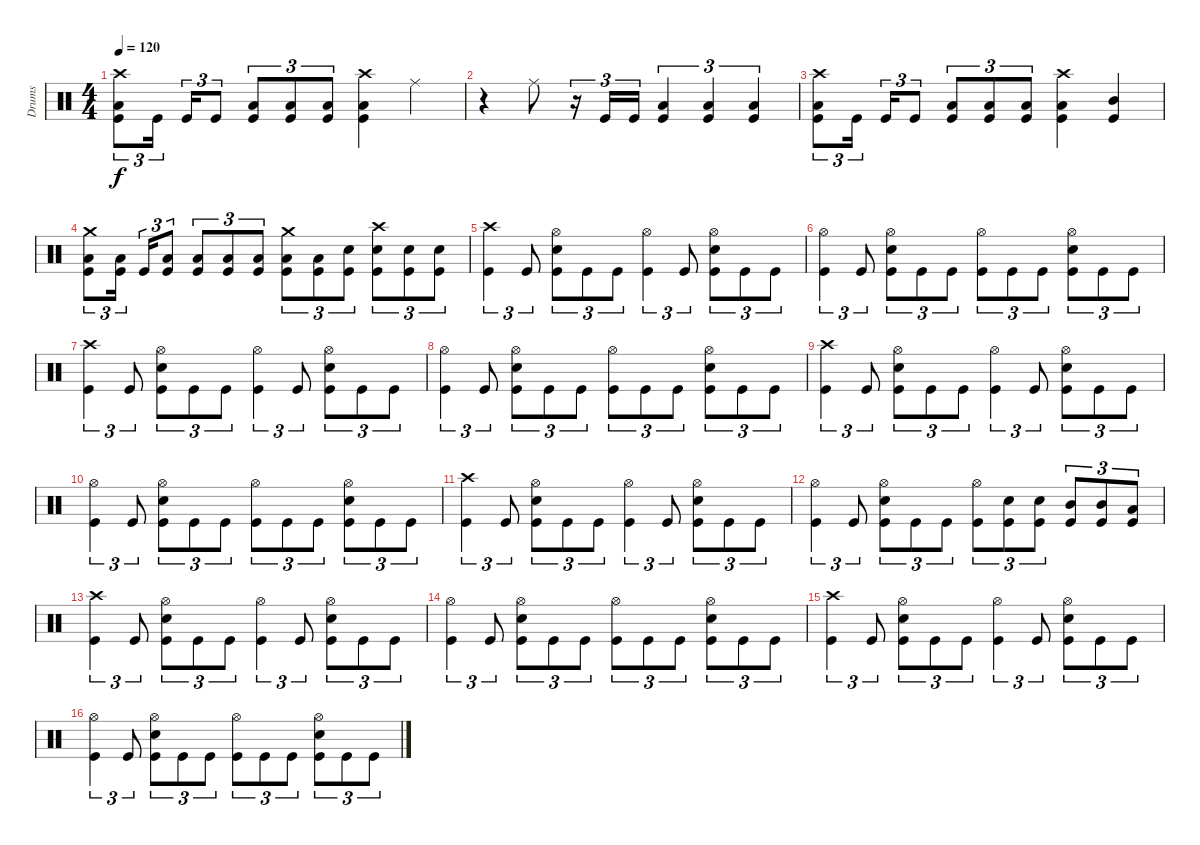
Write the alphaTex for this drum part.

\track ("Drums" "Drums") {instrument percussion}
\staff {score}
\articulation defaults
\ts (4 4)
\tempo 120
\clef neutral
\ks c
("Crash high (hit)" "Low Floor Tom (hit)" "Kick (hit)").8{tu (3 2) dy f} "Kick (hit)".16{tu (3 2)} "Kick (hit)".16{tu (3 2)} "Kick (hit)".8{tu (3 2)} ("Low Floor Tom (hit)" "Kick (hit)").8{tu (3 2)} ("Low Floor Tom (hit)" "Kick (hit)").8{tu (3 2)} ("Low Floor Tom (hit)" "Kick (hit)").8{tu (3 2)} ("Crash high (hit)" "Low Floor Tom (hit)" "Kick (hit)").4 "Ride (middle)".4 |
r.4 "Ride (middle)".8 r.16{tu (3 2)} "Kick (hit)".16{tu (3 2)} "Kick (hit)".16{tu (3 2)} ("Low Floor Tom (hit)" "Kick (hit)").4{tu (3 2)} ("Low Floor Tom (hit)" "Kick (hit)").4{tu (3 2)} ("Low Floor Tom (hit)" "Kick (hit)").4{tu (3 2)} |
("Crash high (hit)" "Low Floor Tom (hit)" "Kick (hit)").8{tu (3 2)} "Kick (hit)".16{tu (3 2)} "Kick (hit)".16{tu (3 2)} "Kick (hit)".8{tu (3 2)} ("Low Floor Tom (hit)" "Kick (hit)").8{tu (3 2)} ("Low Floor Tom (hit)" "Kick (hit)").8{tu (3 2)} ("Low Floor Tom (hit)" "Kick (hit)").8{tu (3 2)} ("Crash high (hit)" "Low Floor Tom (hit)" "Kick (hit)").4 ("Mid Tom (hit)" "Kick (hit)").4 |
("Crash medium (hit)" "Low Floor Tom (hit)" "Kick (hit)").8{tu (3 2)} ("Low Floor Tom (hit)" "Kick (hit)").16{tu (3 2)} "Kick (hit)".16{tu (3 2)} ("Low Floor Tom (hit)" "Kick (hit)").8{tu (3 2)} ("Low Floor Tom (hit)" "Kick (hit)").8{tu (3 2)} ("Low Floor Tom (hit)" "Kick (hit)").8{tu (3 2)} ("Low Floor Tom (hit)" "Kick (hit)").8{tu (3 2)} ("Crash medium (hit)" "Low Floor Tom (hit)" "Kick (hit)").8{tu (3 2)} ("Low Floor Tom (hit)" "Kick (hit)").8{tu (3 2)} ("Snare (hit) 2" "Kick (hit)").8{tu (3 2)} ("Crash high (hit)" "Snare (hit) 2" "Kick (hit)").8{tu (3 2)} ("Snare (hit) 2" "Kick (hit)").8{tu (3 2)} ("Snare (hit) 2" "Kick (hit)").8{tu (3 2)} |
("Crash high (hit)" "Kick (hit)").4{tu (3 2)} "Kick (hit)".8{tu (3 2)} ("Hi-Hat (open)" "Snare (hit) 2" "Kick (hit)").8{tu (3 2)} "Kick (hit)".8{tu (3 2)} "Kick (hit)".8{tu (3 2)} ("Hi-Hat (open)" "Kick (hit)").4{tu (3 2)} "Kick (hit)".8{tu (3 2)} ("Hi-Hat (open)" "Snare (hit) 2" "Kick (hit)").8{tu (3 2)} "Kick (hit)".8{tu (3 2)} "Kick (hit)".8{tu (3 2)} |
("Hi-Hat (open)" "Kick (hit)").4{tu (3 2)} "Kick (hit)".8{tu (3 2)} ("Hi-Hat (open)" "Snare (hit) 2" "Kick (hit)").8{tu (3 2)} "Kick (hit)".8{tu (3 2)} "Kick (hit)".8{tu (3 2)} ("Hi-Hat (open)" "Kick (hit)").8{tu (3 2)} "Kick (hit)".8{tu (3 2)} "Kick (hit)".8{tu (3 2)} ("Hi-Hat (open)" "Snare (hit) 2" "Kick (hit)").8{tu (3 2)} "Kick (hit)".8{tu (3 2)} "Kick (hit)".8{tu (3 2)} |
("Crash high (hit)" "Kick (hit)").4{tu (3 2)} "Kick (hit)".8{tu (3 2)} ("Hi-Hat (open)" "Snare (hit) 2" "Kick (hit)").8{tu (3 2)} "Kick (hit)".8{tu (3 2)} "Kick (hit)".8{tu (3 2)} ("Hi-Hat (open)" "Kick (hit)").4{tu (3 2)} "Kick (hit)".8{tu (3 2)} ("Hi-Hat (open)" "Snare (hit) 2" "Kick (hit)").8{tu (3 2)} "Kick (hit)".8{tu (3 2)} "Kick (hit)".8{tu (3 2)} |
("Hi-Hat (open)" "Kick (hit)").4{tu (3 2)} "Kick (hit)".8{tu (3 2)} ("Hi-Hat (open)" "Snare (hit) 2" "Kick (hit)").8{tu (3 2)} "Kick (hit)".8{tu (3 2)} "Kick (hit)".8{tu (3 2)} ("Hi-Hat (open)" "Kick (hit)").8{tu (3 2)} "Kick (hit)".8{tu (3 2)} "Kick (hit)".8{tu (3 2)} ("Hi-Hat (open)" "Snare (hit) 2" "Kick (hit)").8{tu (3 2)} "Kick (hit)".8{tu (3 2)} "Kick (hit)".8{tu (3 2)} |
("Crash high (hit)" "Kick (hit)").4{tu (3 2)} "Kick (hit)".8{tu (3 2)} ("Hi-Hat (open)" "Snare (hit) 2" "Kick (hit)").8{tu (3 2)} "Kick (hit)".8{tu (3 2)} "Kick (hit)".8{tu (3 2)} ("Hi-Hat (open)" "Kick (hit)").4{tu (3 2)} "Kick (hit)".8{tu (3 2)} ("Hi-Hat (open)" "Snare (hit) 2" "Kick (hit)").8{tu (3 2)} "Kick (hit)".8{tu (3 2)} "Kick (hit)".8{tu (3 2)} |
("Hi-Hat (open)" "Kick (hit)").4{tu (3 2)} "Kick (hit)".8{tu (3 2)} ("Hi-Hat (open)" "Snare (hit) 2" "Kick (hit)").8{tu (3 2)} "Kick (hit)".8{tu (3 2)} "Kick (hit)".8{tu (3 2)} ("Hi-Hat (open)" "Kick (hit)").8{tu (3 2)} "Kick (hit)".8{tu (3 2)} "Kick (hit)".8{tu (3 2)} ("Hi-Hat (open)" "Snare (hit) 2" "Kick (hit)").8{tu (3 2)} "Kick (hit)".8{tu (3 2)} "Kick (hit)".8{tu (3 2)} |
("Crash high (hit)" "Kick (hit)").4{tu (3 2)} "Kick (hit)".8{tu (3 2)} ("Hi-Hat (open)" "Snare (hit) 2" "Kick (hit)").8{tu (3 2)} "Kick (hit)".8{tu (3 2)} "Kick (hit)".8{tu (3 2)} ("Hi-Hat (open)" "Kick (hit)").4{tu (3 2)} "Kick (hit)".8{tu (3 2)} ("Hi-Hat (open)" "Snare (hit) 2" "Kick (hit)").8{tu (3 2)} "Kick (hit)".8{tu (3 2)} "Kick (hit)".8{tu (3 2)} |
("Hi-Hat (open)" "Kick (hit)").4{tu (3 2)} "Kick (hit)".8{tu (3 2)} ("Hi-Hat (open)" "Snare (hit) 2" "Kick (hit)").8{tu (3 2)} "Kick (hit)".8{tu (3 2)} "Kick (hit)".8{tu (3 2)} ("Hi-Hat (open)" "Kick (hit)").8{tu (3 2)} ("Snare (hit) 2" "Kick (hit)").8{tu (3 2)} ("Snare (hit) 2" "Kick (hit)").8{tu (3 2)} ("Mid Tom (hit)" "Kick (hit)").8{tu (3 2)} ("Mid Tom (hit)" "Kick (hit)").8{tu (3 2)} ("Low Tom (hit)" "Kick (hit)").8{tu (3 2)} |
("Crash high (hit)" "Kick (hit)").4{tu (3 2)} "Kick (hit)".8{tu (3 2)} ("Hi-Hat (open)" "Snare (hit) 2" "Kick (hit)").8{tu (3 2)} "Kick (hit)".8{tu (3 2)} "Kick (hit)".8{tu (3 2)} ("Hi-Hat (open)" "Kick (hit)").4{tu (3 2)} "Kick (hit)".8{tu (3 2)} ("Hi-Hat (open)" "Snare (hit) 2" "Kick (hit)").8{tu (3 2)} "Kick (hit)".8{tu (3 2)} "Kick (hit)".8{tu (3 2)} |
("Hi-Hat (open)" "Kick (hit)").4{tu (3 2)} "Kick (hit)".8{tu (3 2)} ("Hi-Hat (open)" "Snare (hit) 2" "Kick (hit)").8{tu (3 2)} "Kick (hit)".8{tu (3 2)} "Kick (hit)".8{tu (3 2)} ("Hi-Hat (open)" "Kick (hit)").8{tu (3 2)} "Kick (hit)".8{tu (3 2)} "Kick (hit)".8{tu (3 2)} ("Hi-Hat (open)" "Snare (hit) 2" "Kick (hit)").8{tu (3 2)} "Kick (hit)".8{tu (3 2)} "Kick (hit)".8{tu (3 2)} |
("Crash high (hit)" "Kick (hit)").4{tu (3 2)} "Kick (hit)".8{tu (3 2)} ("Hi-Hat (open)" "Snare (hit) 2" "Kick (hit)").8{tu (3 2)} "Kick (hit)".8{tu (3 2)} "Kick (hit)".8{tu (3 2)} ("Hi-Hat (open)" "Kick (hit)").4{tu (3 2)} "Kick (hit)".8{tu (3 2)} ("Hi-Hat (open)" "Snare (hit) 2" "Kick (hit)").8{tu (3 2)} "Kick (hit)".8{tu (3 2)} "Kick (hit)".8{tu (3 2)} |
("Hi-Hat (open)" "Kick (hit)").4{tu (3 2)} "Kick (hit)".8{tu (3 2)} ("Hi-Hat (open)" "Snare (hit) 2" "Kick (hit)").8{tu (3 2)} "Kick (hit)".8{tu (3 2)} "Kick (hit)".8{tu (3 2)} ("Hi-Hat (open)" "Kick (hit)").8{tu (3 2)} "Kick (hit)".8{tu (3 2)} "Kick (hit)".8{tu (3 2)} ("Hi-Hat (open)" "Snare (hit) 2" "Kick (hit)").8{tu (3 2)} "Kick (hit)".8{tu (3 2)} "Kick (hit)".8{tu (3 2)}
